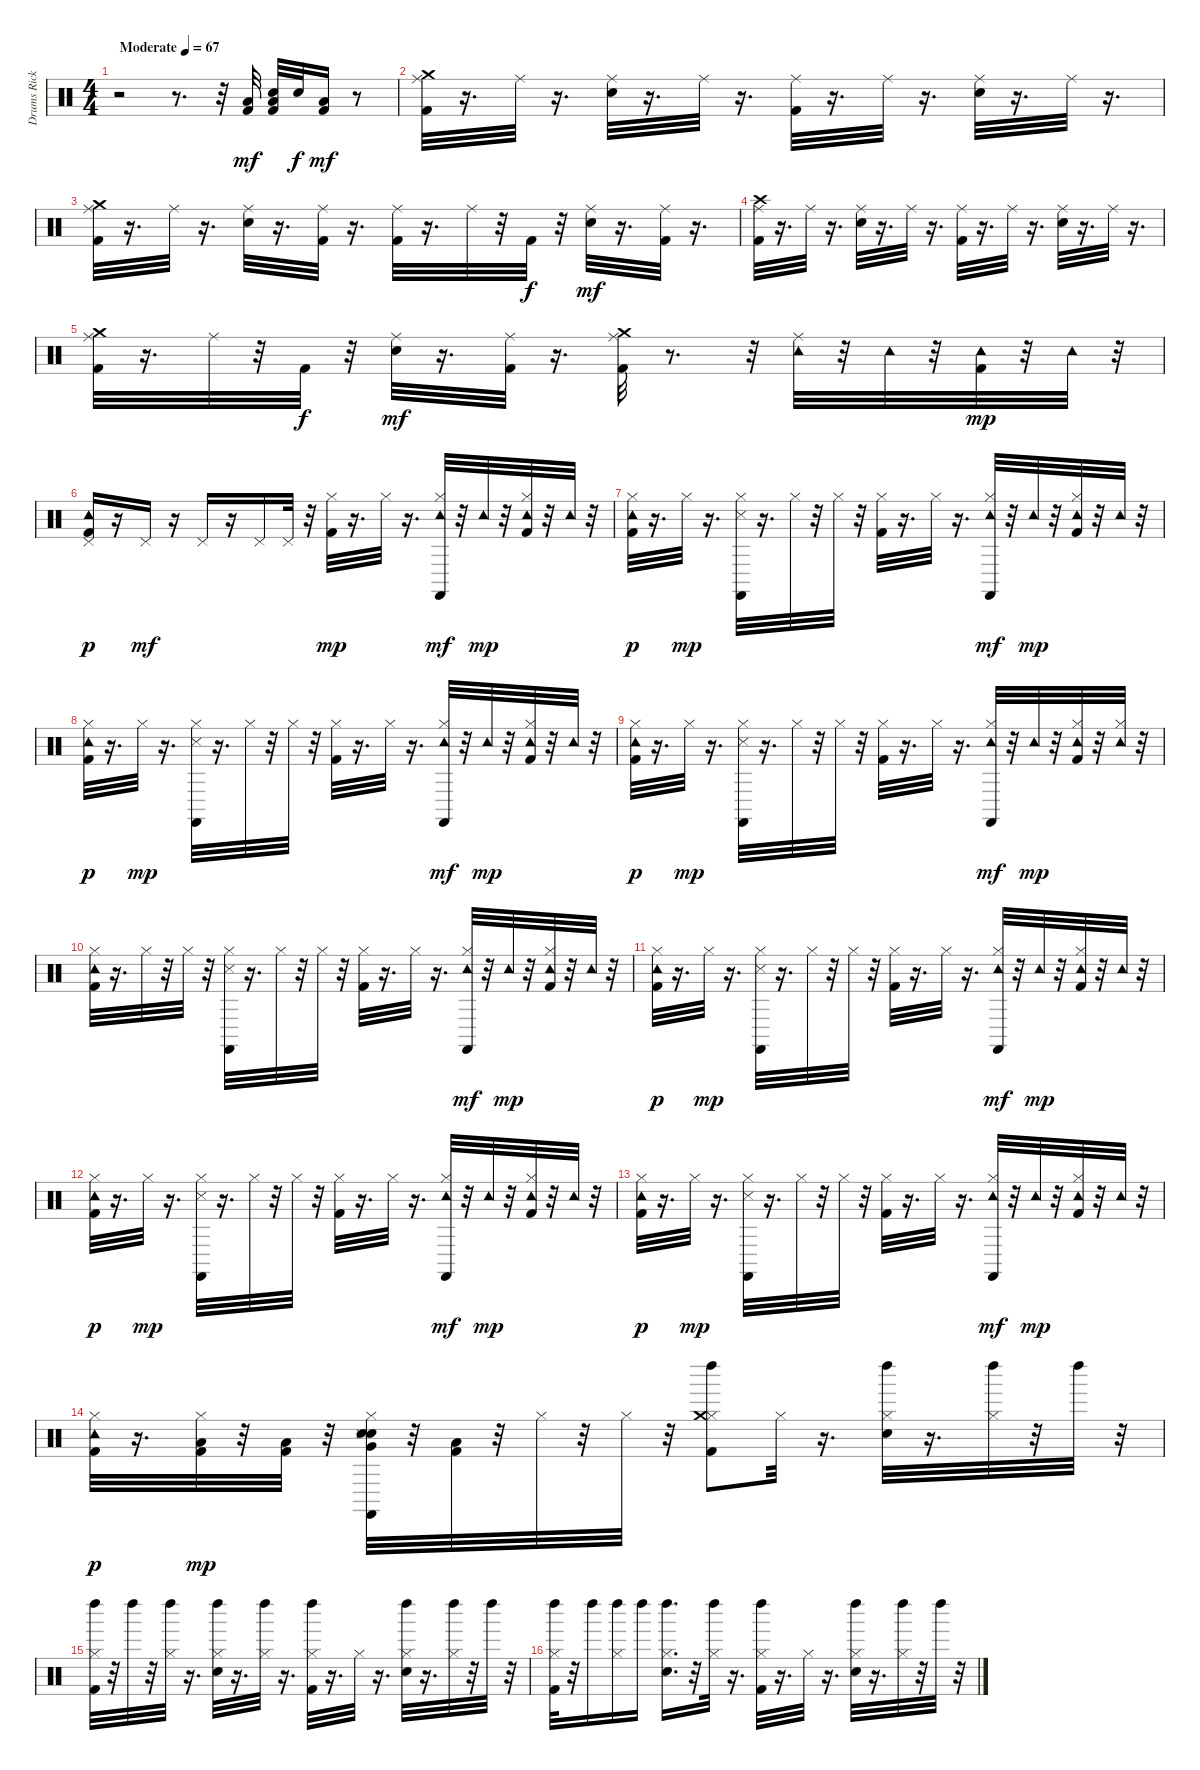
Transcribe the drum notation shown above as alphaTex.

\track ("Drums Rick Allen" "Drums Rick") {solo instrument percussion}
\staff {score}
\articulation defaults
\ts (4 4)
\tempo (67 "Moderate")
\clef neutral
\ks c
r.2{dy mf} r.8{d} r.32 ("Low Floor Tom (hit)" "Kick (hit) 2").32 ("Low Floor Tom (hit)" "Kick (hit) 2" "Electric Snare (hit)").32 "Electric Snare (hit)".32{dy f} ("Low Floor Tom (hit)" "Kick (hit) 2").16{dy mf} r.8 |
("Kick (hit) 2" "Ride (middle)" "Crash medium (hit)").32 r.16{d} "Ride (middle)".32 r.16{d} ("Electric Snare (hit)" "Ride (middle)").32 r.16{d} "Ride (middle)".32 r.16{d} ("Kick (hit) 2" "Ride (middle)").32 r.16{d} "Ride (middle)".32 r.16{d} ("Electric Snare (hit)" "Ride (middle)").32 r.16{d} "Ride (middle)".32 r.16{d} |
("Kick (hit) 2" "Ride (middle)" "Crash medium (hit)").32 r.16{d} "Ride (middle)".32 r.16{d} ("Electric Snare (hit)" "Ride (middle)").32 r.16{d} ("Kick (hit) 2" "Ride (middle)").32 r.16{d} ("Kick (hit) 2" "Ride (middle)").32 r.16{d} "Ride (middle)".32 r.32 "Kick (hit) 2".32{dy f} r.32 ("Electric Snare (hit)" "Ride (middle)").32{dy mf} r.16{d} ("Kick (hit) 2" "Ride (middle)").32 r.16{d} |
("Kick (hit) 2" "Ride (middle)" "Crash high (hit)").32 r.16{d} "Ride (middle)".32 r.16{d} ("Electric Snare (hit)" "Ride (middle)").32 r.16{d} "Ride (middle)".32 r.16{d} ("Kick (hit) 2" "Ride (middle)").32 r.16{d} "Ride (middle)".32 r.16{d} ("Electric Snare (hit)" "Ride (middle)").32 r.16{d} "Ride (middle)".32 r.16{d} |
("Kick (hit) 2" "Ride (middle)" "Crash medium (hit)").32 r.16{d} "Ride (middle)".32 r.32 "Kick (hit) 2".32{dy f} r.32 ("Electric Snare (hit)" "Ride (middle)").32{dy mf} r.16{d} ("Kick (hit) 2" "Ride (middle)").32 r.16{d} ("Kick (hit) 2" "Ride (middle)" "Crash medium (hit)").32 r.8{d} r.32 ("Tambourine (hit)" "Ride (middle)").32 r.32 "Tambourine (hit)".32 r.32 ("Kick (hit) 2" "Tambourine (hit)").32{dy mp} r.32 "Tambourine (hit)".32 r.32 |
("Kick (hit) 2" "Pedal Hi-Hat (hit)" "Tambourine (hit)").16{dy p} r.16 "Pedal Hi-Hat (hit)".16{dy mf} r.16 "Pedal Hi-Hat (hit)".16 r.16 "Pedal Hi-Hat (hit)".16 "Pedal Hi-Hat (hit)".32 r.32 ("Kick (hit) 2" "Hi-Hat (closed)").32{dy mp} r.16{d} "Hi-Hat (closed)".32 r.16{d} ("Castanets (hit)" "Hi-Hat (closed)" "Tambourine (hit)").32{dy mf} r.32 "Tambourine (hit)".32{dy mp} r.32 ("Kick (hit) 2" "Hi-Hat (closed)" "Tambourine (hit)").32 r.32 "Tambourine (hit)".32 r.32 |
("Kick (hit) 2" "Hi-Hat (closed)" "Tambourine (hit)").32{dy p} r.16{d} "Hi-Hat (closed)".32{dy mp} r.16{d} ("Castanets (hit)" "Snare (side stick) 3" "Hi-Hat (closed)").32 r.16{d} "Hi-Hat (closed)".32 r.32 "Hi-Hat (closed)".32 r.32 ("Kick (hit) 2" "Hi-Hat (closed)").32 r.16{d} "Hi-Hat (closed)".32 r.16{d} ("Castanets (hit)" "Hi-Hat (closed)" "Tambourine (hit)").32{dy mf} r.32 "Tambourine (hit)".32{dy mp} r.32 ("Kick (hit) 2" "Hi-Hat (closed)" "Tambourine (hit)").32 r.32 "Tambourine (hit)".32 r.32 |
("Kick (hit) 2" "Hi-Hat (closed)" "Tambourine (hit)").32{dy p} r.16{d} "Hi-Hat (closed)".32{dy mp} r.16{d} ("Castanets (hit)" "Snare (side stick) 3" "Hi-Hat (closed)").32 r.16{d} "Hi-Hat (closed)".32 r.32 "Hi-Hat (closed)".32 r.32 ("Kick (hit) 2" "Hi-Hat (closed)").32 r.16{d} "Hi-Hat (closed)".32 r.16{d} ("Castanets (hit)" "Hi-Hat (closed)" "Tambourine (hit)").32{dy mf} r.32 "Tambourine (hit)".32{dy mp} r.32 ("Kick (hit) 2" "Hi-Hat (closed)" "Tambourine (hit)").32 r.32 "Tambourine (hit)".32 r.32 |
("Kick (hit) 2" "Hi-Hat (closed)" "Tambourine (hit)").32{dy p} r.16{d} "Hi-Hat (closed)".32{dy mp} r.16{d} ("Castanets (hit)" "Snare (side stick) 3" "Hi-Hat (closed)").32 r.16{d} "Hi-Hat (closed)".32 r.32 "Hi-Hat (closed)".32 r.32 ("Kick (hit) 2" "Hi-Hat (closed)").32 r.16{d} "Hi-Hat (closed)".32 r.16{d} ("Castanets (hit)" "Hi-Hat (closed)" "Tambourine (hit)").32{dy mf} r.32 "Tambourine (hit)".32{dy mp} r.32 ("Kick (hit) 2" "Tambourine (hit)" "Hi-Hat (closed)").32 r.32 ("Tambourine (hit)" "Hi-Hat (closed)").32 r.32 |
("Kick (hit) 2" "Tambourine (hit)" "Hi-Hat (closed)").32 r.16{d} "Hi-Hat (closed)".32 r.32 "Hi-Hat (closed)".32 r.32 ("Castanets (hit)" "Snare (side stick) 3" "Hi-Hat (closed)").32 r.16{d} "Hi-Hat (closed)".32 r.32 "Hi-Hat (closed)".32 r.32 ("Kick (hit) 2" "Hi-Hat (closed)").32 r.16{d} "Hi-Hat (closed)".32 r.16{d} ("Castanets (hit)" "Hi-Hat (closed)" "Tambourine (hit)").32{dy mf} r.32 "Tambourine (hit)".32{dy mp} r.32 ("Kick (hit) 2" "Hi-Hat (closed)" "Tambourine (hit)").32 r.32 "Tambourine (hit)".32 r.32 |
("Kick (hit) 2" "Hi-Hat (closed)" "Tambourine (hit)").32{dy p} r.16{d} "Hi-Hat (closed)".32{dy mp} r.16{d} ("Castanets (hit)" "Snare (side stick) 3" "Hi-Hat (closed)").32 r.16{d} "Hi-Hat (closed)".32 r.32 "Hi-Hat (closed)".32 r.32 ("Kick (hit) 2" "Hi-Hat (closed)").32 r.16{d} "Hi-Hat (closed)".32 r.16{d} ("Castanets (hit)" "Hi-Hat (closed)" "Tambourine (hit)").32{dy mf} r.32 "Tambourine (hit)".32{dy mp} r.32 ("Kick (hit) 2" "Hi-Hat (closed)" "Tambourine (hit)").32 r.32 "Tambourine (hit)".32 r.32 |
("Kick (hit) 2" "Hi-Hat (closed)" "Tambourine (hit)").32{dy p} r.16{d} "Hi-Hat (closed)".32{dy mp} r.16{d} ("Castanets (hit)" "Snare (side stick) 3" "Hi-Hat (closed)").32 r.16{d} "Hi-Hat (closed)".32 r.32 "Hi-Hat (closed)".32 r.32 ("Kick (hit) 2" "Hi-Hat (closed)").32 r.16{d} "Hi-Hat (closed)".32 r.16{d} ("Castanets (hit)" "Hi-Hat (closed)" "Tambourine (hit)").32{dy mf} r.32 "Tambourine (hit)".32{dy mp} r.32 ("Kick (hit) 2" "Hi-Hat (closed)" "Tambourine (hit)").32 r.32 "Tambourine (hit)".32 r.32 |
("Kick (hit) 2" "Hi-Hat (closed)" "Tambourine (hit)").32{dy p} r.16{d} "Hi-Hat (closed)".32{dy mp} r.16{d} ("Castanets (hit)" "Snare (side stick) 3" "Hi-Hat (closed)").32 r.16{d} "Hi-Hat (closed)".32 r.32 "Hi-Hat (closed)".32 r.32 ("Kick (hit) 2" "Hi-Hat (closed)").32 r.16{d} "Hi-Hat (closed)".32 r.16{d} ("Castanets (hit)" "Hi-Hat (closed)" "Tambourine (hit)").32{dy mf} r.32 "Tambourine (hit)".32{dy mp} r.32 ("Kick (hit) 2" "Hi-Hat (closed)" "Tambourine (hit)").32 r.32 "Tambourine (hit)".32 r.32 |
("Kick (hit) 2" "Hi-Hat (closed)" "Tambourine (hit)").32{dy p} r.16{d} ("Hi-Hat (closed)" "Kick (hit) 2" "Low Floor Tom (hit)").32{dy mp} r.32 ("Kick (hit) 2" "Low Floor Tom (hit)").32 r.32 ("Electric Snare (hit)" "Castanets (hit)" "Snare (side stick) 3" "Hi-Hat (closed)" "Electric Snare (hit)" "Very Low Tom (hit)").32 r.32 ("Kick (hit) 2" "Low Floor Tom (hit)").32 r.32 "Hi-Hat (closed)".32 r.32 "Hi-Hat (closed)".32 r.32 ("Hi-Hat (closed)" "Kick (hit) 2" "Crash medium (hit)" "Left Maraca (hit)").8 "Hi-Hat (closed)".32 r.16{d} ("Hi-Hat (closed)" "Electric Snare (hit)" "Left Maraca (hit)").32 r.16{d} ("Hi-Hat (closed)" "Left Maraca (hit)").32 r.32 "Left Maraca (hit)".32 r.32 |
("Hi-Hat (closed)" "Kick (hit) 2" "Left Maraca (hit)").32 r.32 "Left Maraca (hit)".32 r.32 ("Hi-Hat (closed)" "Left Maraca (hit)").32 r.16{d} ("Hi-Hat (closed)" "Electric Snare (hit)" "Left Maraca (hit)").32 r.16{d} ("Hi-Hat (closed)" "Left Maraca (hit)").32 r.16{d} ("Hi-Hat (closed)" "Kick (hit) 2" "Left Maraca (hit)").32 r.16{d} "Hi-Hat (closed)".32 r.16{d} ("Hi-Hat (closed)" "Electric Snare (hit)" "Left Maraca (hit)").32 r.16{d} ("Hi-Hat (closed)" "Left Maraca (hit)").32 r.32 "Left Maraca (hit)".32 r.32 |
("Hi-Hat (closed)" "Kick (hit) 2" "Left Maraca (hit)").32 r.32 "Left Maraca (hit)".16 ("Hi-Hat (closed)" "Left Maraca (hit)").16 "Left Maraca (hit)".16 ("Hi-Hat (closed)" "Electric Snare (hit)" "Left Maraca (hit)").16{d} r.32 ("Hi-Hat (closed)" "Left Maraca (hit)").32 r.16{d} ("Hi-Hat (closed)" "Kick (hit) 2" "Left Maraca (hit)").32 r.16{d} "Hi-Hat (closed)".32 r.16{d} ("Hi-Hat (closed)" "Electric Snare (hit)" "Left Maraca (hit)").32 r.16{d} ("Hi-Hat (closed)" "Left Maraca (hit)").32 r.32 "Left Maraca (hit)".32 r.32
